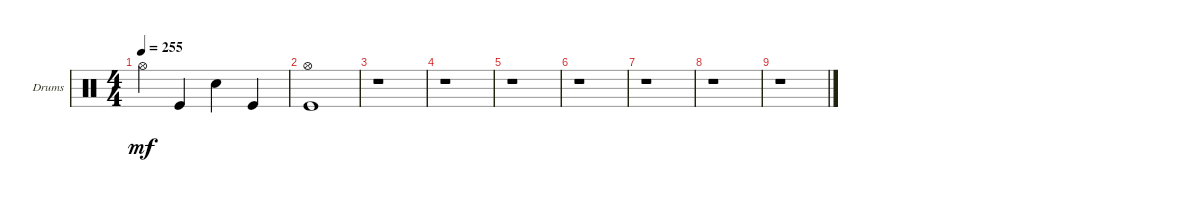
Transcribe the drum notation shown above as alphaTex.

\bracketExtendMode groupsimilarinstruments
\firstSystemTrackNameOrientation horizontal
\otherSystemsTrackNameOrientation horizontal
\track ("Drums" "Drums") {instrument percussion}
\staff {score}
\articulation defaults
\ts (4 4)
\tempo 255
\clef neutral
\ks c "Hi-Hat (open)".4{dy mf} "Kick (hit)".4 "Snare (hit) 2".4 "Kick (hit)".4
|
("Kick (hit)" "Hi-Hat (open)").1 |
r.1 |
r.1 |
r.1 |
r.1 |
r.1 |
r.1 |
r.1
